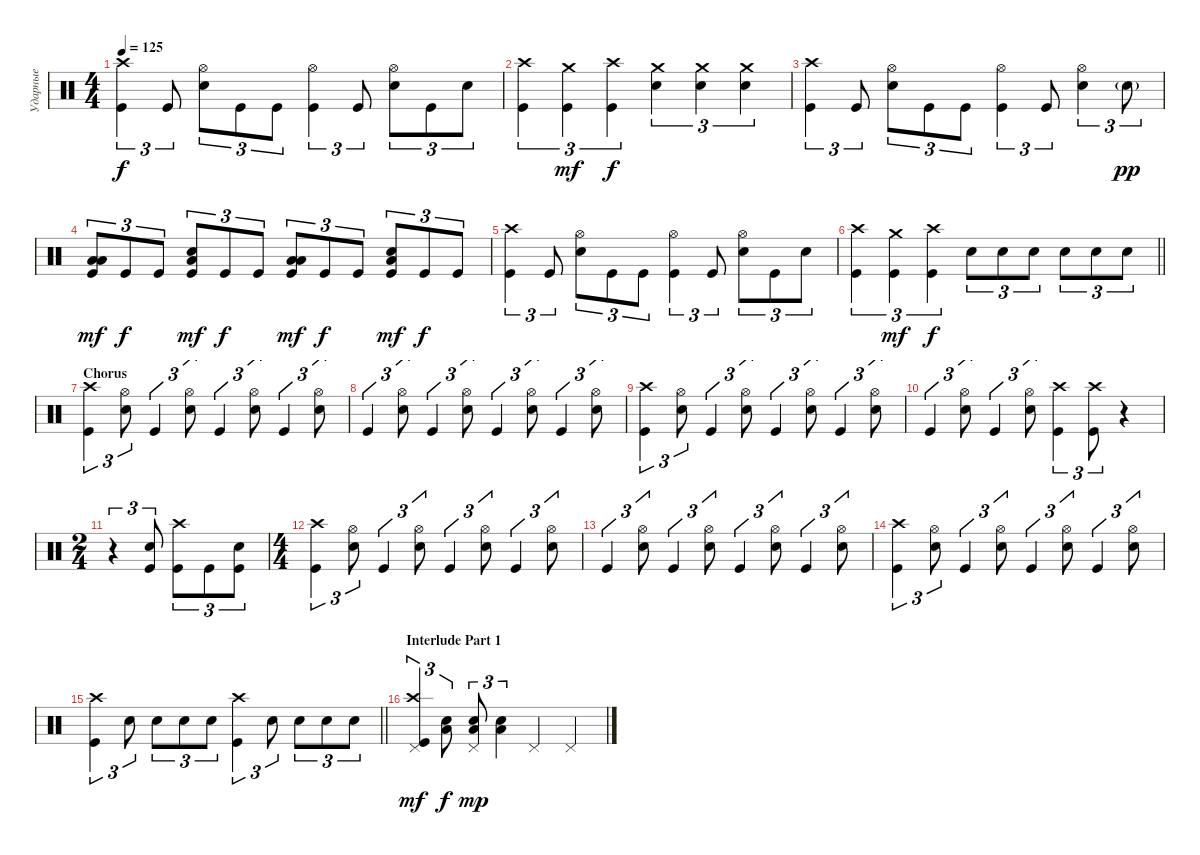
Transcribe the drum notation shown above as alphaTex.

\track ("Ударные" "Ударные") {instrument percussion}
\staff {score}
\articulation defaults
\ts (4 4)
\tempo 125
\clef neutral
\ks c
("Kick (hit)" "Crash high (hit)").4{tu (3 2) dy f} "Kick (hit)".8{tu (3 2)} ("Snare (hit) 2" "Hi-Hat (open)").8{tu (3 2)} "Kick (hit)".8{tu (3 2)} "Kick (hit)".8{tu (3 2)} ("Kick (hit)" "Hi-Hat (open)").4{tu (3 2)} "Kick (hit)".8{tu (3 2)} ("Snare (hit) 2" "Hi-Hat (open)").8{tu (3 2)} "Kick (hit)".8{tu (3 2)} "Snare (hit) 2".8{tu (3 2)} |
("Kick (hit)" "Crash high (hit)").4{tu (3 2)} ("Kick (hit)" "Crash medium (hit)").4{tu (3 2) dy mf} ("Kick (hit)" "Crash high (hit)").4{tu (3 2) dy f} ("Snare (hit) 2" "Crash medium (hit)").4{tu (3 2)} ("Crash medium (hit)" "Snare (hit) 2").4{tu (3 2)} ("Snare (hit) 2" "Crash medium (hit)").4{tu (3 2)} |
("Kick (hit)" "Crash high (hit)").4{tu (3 2)} "Kick (hit)".8{tu (3 2)} ("Snare (hit) 2" "Hi-Hat (open)").8{tu (3 2)} "Kick (hit)".8{tu (3 2)} "Kick (hit)".8{tu (3 2)} ("Kick (hit)" "Hi-Hat (open)").4{tu (3 2)} "Kick (hit)".8{tu (3 2)} ("Snare (hit) 2" "Hi-Hat (open)").4{tu (3 2)} "Snare (hit) 2"{g}.8{tu (3 2) dy pp} |
("Kick (hit)" "Low Floor Tom (hit)" "Low Tom (hit)").8{tu (3 2) bd 120 dy mf} "Kick (hit)".8{tu (3 2) dy f} "Kick (hit)".8{tu (3 2)} ("Kick (hit)" "Snare (hit) 2" "Low Floor Tom (hit)").8{tu (3 2) bd 120 dy mf} "Kick (hit)".8{tu (3 2) dy f} "Kick (hit)".8{tu (3 2)} ("Kick (hit)" "Low Floor Tom (hit)" "Low Tom (hit)").8{tu (3 2) bd 120 dy mf} "Kick (hit)".8{tu (3 2) dy f} "Kick (hit)".8{tu (3 2)} ("Kick (hit)" "Snare (hit) 2" "Low Floor Tom (hit)").8{tu (3 2) bd 120 dy mf} "Kick (hit)".8{tu (3 2) dy f} "Kick (hit)".8{tu (3 2)} |
("Kick (hit)" "Crash high (hit)").4{tu (3 2)} "Kick (hit)".8{tu (3 2)} ("Snare (hit) 2" "Hi-Hat (open)").8{tu (3 2)} "Kick (hit)".8{tu (3 2)} "Kick (hit)".8{tu (3 2)} ("Kick (hit)" "Hi-Hat (open)").4{tu (3 2)} "Kick (hit)".8{tu (3 2)} ("Snare (hit) 2" "Hi-Hat (open)").8{tu (3 2)} "Kick (hit)".8{tu (3 2)} "Snare (hit) 2".8{tu (3 2)} |
\barLineRight lightlight
("Kick (hit)" "Crash high (hit)").4{tu (3 2)} ("Kick (hit)" "Crash medium (hit)").4{tu (3 2) dy mf} ("Kick (hit)" "Crash high (hit)").4{tu (3 2) dy f} "Snare (hit) 2".8{tu (3 2)} "Snare (hit) 2".8{tu (3 2)} "Snare (hit) 2".8{tu (3 2)} "Snare (hit) 2".8{tu (3 2)} "Snare (hit) 2".8{tu (3 2)} "Snare (hit) 2".8{tu (3 2)} |
\section ("" "Chorus")
("Kick (hit)" "Crash high (hit)").4{tu (3 2)} ("Snare (hit) 2" "Hi-Hat (open)").8{tu (3 2)} "Kick (hit)".4{tu (3 2)} ("Snare (hit) 2" "Hi-Hat (open)").8{tu (3 2)} "Kick (hit)".4{tu (3 2)} ("Hi-Hat (open)" "Snare (hit) 2").8{tu (3 2)} "Kick (hit)".4{tu (3 2)} ("Snare (hit) 2" "Hi-Hat (open)").8{tu (3 2)} |
"Kick (hit)".4{tu (3 2)} ("Hi-Hat (open)" "Snare (hit) 2").8{tu (3 2)} "Kick (hit)".4{tu (3 2)} ("Snare (hit) 2" "Hi-Hat (open)").8{tu (3 2)} "Kick (hit)".4{tu (3 2)} ("Hi-Hat (open)" "Snare (hit) 2").8{tu (3 2)} "Kick (hit)".4{tu (3 2)} ("Snare (hit) 2" "Hi-Hat (open)").8{tu (3 2)} |
("Kick (hit)" "Crash high (hit)").4{tu (3 2)} ("Snare (hit) 2" "Hi-Hat (open)").8{tu (3 2)} "Kick (hit)".4{tu (3 2)} ("Snare (hit) 2" "Hi-Hat (open)").8{tu (3 2)} "Kick (hit)".4{tu (3 2)} ("Hi-Hat (open)" "Snare (hit) 2").8{tu (3 2)} "Kick (hit)".4{tu (3 2)} ("Snare (hit) 2" "Hi-Hat (open)").8{tu (3 2)} |
"Kick (hit)".4{tu (3 2)} ("Hi-Hat (open)" "Snare (hit) 2").8{tu (3 2)} "Kick (hit)".4{tu (3 2)} ("Snare (hit) 2" "Hi-Hat (open)").8{tu (3 2)} ("Kick (hit)" "Crash high (hit)").4{tu (3 2)} ("Crash high (hit)" "Kick (hit)").8{tu (3 2)} r.4 |
\ts (2 4)
r.4{tu (3 2)} ("Snare (hit) 2" "Kick (hit)").8{tu (3 2)} ("Kick (hit)" "Crash high (hit)").8{tu (3 2)} "Kick (hit)".8{tu (3 2)} ("Kick (hit)" "Snare (hit) 2").8{tu (3 2)} |
\ts (4 4)
("Kick (hit)" "Crash high (hit)").4{tu (3 2)} ("Snare (hit) 2" "Hi-Hat (open)").8{tu (3 2)} "Kick (hit)".4{tu (3 2)} ("Snare (hit) 2" "Hi-Hat (open)").8{tu (3 2)} "Kick (hit)".4{tu (3 2)} ("Hi-Hat (open)" "Snare (hit) 2").8{tu (3 2)} "Kick (hit)".4{tu (3 2)} ("Snare (hit) 2" "Hi-Hat (open)").8{tu (3 2)} |
"Kick (hit)".4{tu (3 2)} ("Hi-Hat (open)" "Snare (hit) 2").8{tu (3 2)} "Kick (hit)".4{tu (3 2)} ("Snare (hit) 2" "Hi-Hat (open)").8{tu (3 2)} "Kick (hit)".4{tu (3 2)} ("Hi-Hat (open)" "Snare (hit) 2").8{tu (3 2)} "Kick (hit)".4{tu (3 2)} ("Snare (hit) 2" "Hi-Hat (open)").8{tu (3 2)} |
("Kick (hit)" "Crash high (hit)").4{tu (3 2)} ("Snare (hit) 2" "Hi-Hat (open)").8{tu (3 2)} "Kick (hit)".4{tu (3 2)} ("Snare (hit) 2" "Hi-Hat (open)").8{tu (3 2)} "Kick (hit)".4{tu (3 2)} ("Hi-Hat (open)" "Snare (hit) 2").8{tu (3 2)} "Kick (hit)".4{tu (3 2)} ("Snare (hit) 2" "Hi-Hat (open)").8{tu (3 2)} |
\barLineRight lightlight
("Kick (hit)" "Crash high (hit)").4{tu (3 2)} "Snare (hit) 2".8{tu (3 2)} "Snare (hit) 2".8{tu (3 2)} "Snare (hit) 2".8{tu (3 2)} "Snare (hit) 2".8{tu (3 2)} ("Kick (hit)" "Crash high (hit)").4{tu (3 2)} "Snare (hit) 2".8{tu (3 2)} "Snare (hit) 2".8{tu (3 2)} "Snare (hit) 2".8{tu (3 2)} "Snare (hit) 2".8{tu (3 2)} |
\section ("" "Interlude Part 1")
("Pedal Hi-Hat (hit)" "Crash high (hit)" "Kick (hit)").4{tu (3 2) dy mf} ("Low Tom (hit)" "Snare (hit) 2").8{tu (3 2) dy f} ("Low Tom (hit)" "Snare (hit) 2" "Pedal Hi-Hat (hit)").8{tu (3 2) dy mp} ("Low Tom (hit)" "Snare (hit) 2").4{tu (3 2)} "Pedal Hi-Hat (hit)".4 "Pedal Hi-Hat (hit)".4
